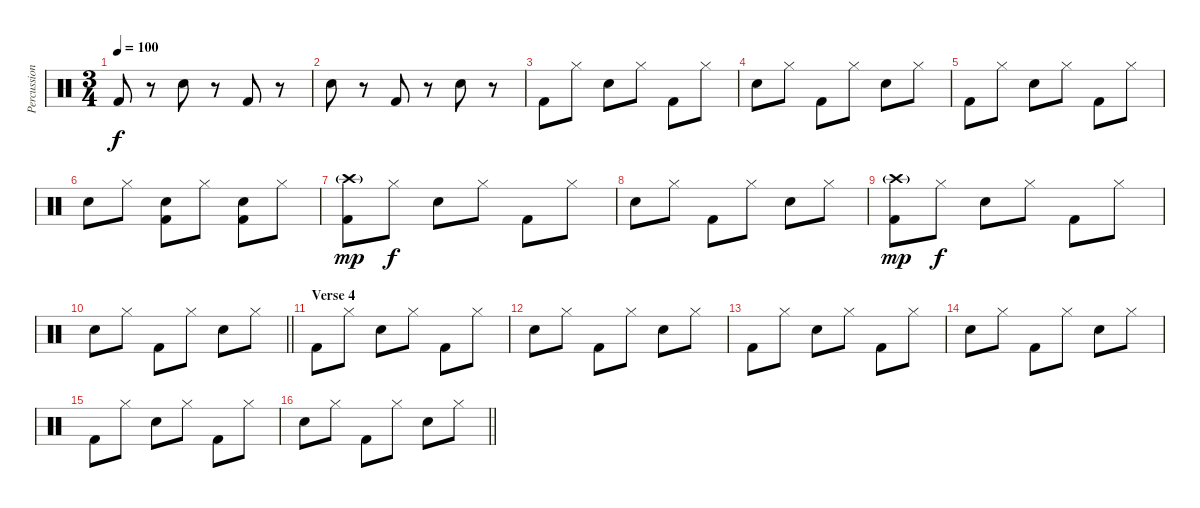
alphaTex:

\track ("Percussion" "Percussion") {instrument percussion}
\staff {score}
\articulation defaults
\ts (3 4)
\tempo 100
\clef neutral
\ks c "Kick (hit) 2".8{dy f}
r.8 "Snare (hit) 2".8 r.8 "Kick (hit) 2".8 r.8 |
"Snare (hit) 2".8 r.8 "Kick (hit) 2".8 r.8 "Snare (hit) 2".8 r.8 |
"Kick (hit) 2".8 "Hi-Hat (closed)".8 "Snare (hit) 2".8 "Hi-Hat (closed)".8 "Kick (hit) 2".8 "Hi-Hat (closed)".8 |
"Snare (hit) 2".8 "Hi-Hat (closed)".8 "Kick (hit) 2".8 "Hi-Hat (closed)".8 "Snare (hit) 2".8 "Hi-Hat (closed)".8 |
"Kick (hit) 2".8 "Hi-Hat (closed)".8 "Snare (hit) 2".8 "Hi-Hat (closed)".8 "Kick (hit) 2".8 "Hi-Hat (closed)".8 |
"Snare (hit) 2".8 "Hi-Hat (closed)".8 ("Snare (hit) 2" "Kick (hit) 2").8 "Hi-Hat (closed)".8 ("Snare (hit) 2" "Kick (hit) 2").8 "Hi-Hat (closed)".8 |
("Crash high (hit)"{g} "Kick (hit) 2").8{dy mp} "Hi-Hat (closed)".8{dy f} "Snare (hit) 2".8 "Hi-Hat (closed)".8 "Kick (hit) 2".8 "Hi-Hat (closed)".8 |
"Snare (hit) 2".8 "Hi-Hat (closed)".8 "Kick (hit) 2".8 "Hi-Hat (closed)".8 "Snare (hit) 2".8 "Hi-Hat (closed)".8 |
("Crash high (hit)"{g} "Kick (hit) 2").8{dy mp} "Hi-Hat (closed)".8{dy f} "Snare (hit) 2".8 "Hi-Hat (closed)".8 "Kick (hit) 2".8 "Hi-Hat (closed)".8 |
\barLineRight lightlight "Snare (hit) 2".8 "Hi-Hat (closed)".8 "Kick (hit) 2".8 "Hi-Hat (closed)".8 "Snare (hit) 2".8 "Hi-Hat (closed)".8
|
\section ("" "Verse 4")
"Kick (hit) 2".8 "Hi-Hat (closed)".8 "Snare (hit) 2".8 "Hi-Hat (closed)".8 "Kick (hit) 2".8 "Hi-Hat (closed)".8 |
"Snare (hit) 2".8 "Hi-Hat (closed)".8 "Kick (hit) 2".8 "Hi-Hat (closed)".8 "Snare (hit) 2".8 "Hi-Hat (closed)".8 |
"Kick (hit) 2".8 "Hi-Hat (closed)".8 "Snare (hit) 2".8 "Hi-Hat (closed)".8 "Kick (hit) 2".8 "Hi-Hat (closed)".8 |
"Snare (hit) 2".8 "Hi-Hat (closed)".8 "Kick (hit) 2".8 "Hi-Hat (closed)".8 "Snare (hit) 2".8 "Hi-Hat (closed)".8 |
"Kick (hit) 2".8 "Hi-Hat (closed)".8 "Snare (hit) 2".8 "Hi-Hat (closed)".8 "Kick (hit) 2".8 "Hi-Hat (closed)".8 |
\barLineRight lightlight "Snare (hit) 2".8 "Hi-Hat (closed)".8 "Kick (hit) 2".8 "Hi-Hat (closed)".8 "Snare (hit) 2".8 "Hi-Hat (closed)".8
